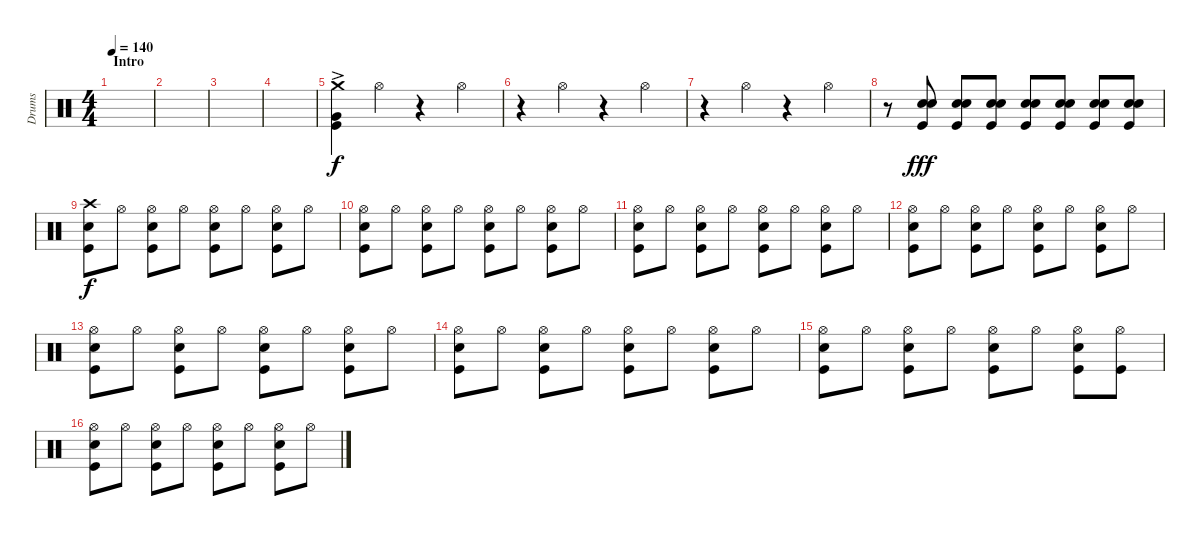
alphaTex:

\track ("Drums" "Drums") {instrument percussion}
\staff {score}
\articulation defaults
\ts (4 4)
\section ("" "Intro")
\tempo 140
\clef neutral
\ks c
|
|
|
|
("Crash medium (hit)"{ac} "Very Low Tom (hit)" "Kick (hit)").4 "Hi-Hat (open)".4{dy f} r.4 "Hi-Hat (open)".4 |
r.4 "Hi-Hat (open)".4 r.4 "Hi-Hat (open)".4 |
r.4 "Hi-Hat (open)".4 r.4 "Hi-Hat (open)".4 |
r.8 ("Snare (hit) 2" "Snare (hit) 2" "Kick (hit)").8{dy fff} ("Snare (hit) 2" "Snare (hit) 2" "Kick (hit)").8 ("Snare (hit) 2" "Snare (hit) 2" "Kick (hit)").8 ("Snare (hit) 2" "Snare (hit) 2" "Kick (hit)").8 ("Snare (hit) 2" "Snare (hit) 2" "Kick (hit)").8 ("Snare (hit) 2" "Snare (hit) 2" "Kick (hit)").8 ("Snare (hit) 2" "Snare (hit) 2" "Kick (hit)").8 |
("Crash high (hit)" "Snare (hit) 2" "Kick (hit)").8{dy f} "Hi-Hat (open)".8 ("Hi-Hat (open)" "Snare (hit) 2" "Kick (hit)").8 "Hi-Hat (open)".8 ("Hi-Hat (open)" "Snare (hit) 2" "Kick (hit)").8 "Hi-Hat (open)".8 ("Hi-Hat (open)" "Snare (hit) 2" "Kick (hit)").8 "Hi-Hat (open)".8 |
("Hi-Hat (open)" "Snare (hit) 2" "Kick (hit)").8 "Hi-Hat (open)".8 ("Hi-Hat (open)" "Snare (hit) 2" "Kick (hit)").8 "Hi-Hat (open)".8 ("Hi-Hat (open)" "Snare (hit) 2" "Kick (hit)").8 "Hi-Hat (open)".8 ("Hi-Hat (open)" "Snare (hit) 2" "Kick (hit)").8 "Hi-Hat (open)".8 |
("Hi-Hat (open)" "Snare (hit) 2" "Kick (hit)").8 "Hi-Hat (open)".8 ("Hi-Hat (open)" "Snare (hit) 2" "Kick (hit)").8 "Hi-Hat (open)".8 ("Hi-Hat (open)" "Snare (hit) 2" "Kick (hit)").8 "Hi-Hat (open)".8 ("Hi-Hat (open)" "Snare (hit) 2" "Kick (hit)").8 "Hi-Hat (open)".8 |
("Hi-Hat (open)" "Snare (hit) 2" "Kick (hit)").8 "Hi-Hat (open)".8 ("Hi-Hat (open)" "Snare (hit) 2" "Kick (hit)").8 "Hi-Hat (open)".8 ("Hi-Hat (open)" "Snare (hit) 2" "Kick (hit)").8 "Hi-Hat (open)".8 ("Hi-Hat (open)" "Snare (hit) 2" "Kick (hit)").8 "Hi-Hat (open)".8 |
("Hi-Hat (open)" "Snare (hit) 2" "Kick (hit)").8 "Hi-Hat (open)".8 ("Hi-Hat (open)" "Snare (hit) 2" "Kick (hit)").8 "Hi-Hat (open)".8 ("Hi-Hat (open)" "Snare (hit) 2" "Kick (hit)").8 "Hi-Hat (open)".8 ("Hi-Hat (open)" "Snare (hit) 2" "Kick (hit)").8 "Hi-Hat (open)".8 |
("Hi-Hat (open)" "Snare (hit) 2" "Kick (hit)").8 "Hi-Hat (open)".8 ("Hi-Hat (open)" "Snare (hit) 2" "Kick (hit)").8 "Hi-Hat (open)".8 ("Hi-Hat (open)" "Snare (hit) 2" "Kick (hit)").8 "Hi-Hat (open)".8 ("Hi-Hat (open)" "Snare (hit) 2" "Kick (hit)").8 "Hi-Hat (open)".8 |
("Hi-Hat (open)" "Snare (hit) 2" "Kick (hit)").8 "Hi-Hat (open)".8 ("Hi-Hat (open)" "Snare (hit) 2" "Kick (hit)").8 "Hi-Hat (open)".8 ("Hi-Hat (open)" "Snare (hit) 2" "Kick (hit)").8 "Hi-Hat (open)".8 ("Hi-Hat (open)" "Snare (hit) 2" "Kick (hit)").8 ("Hi-Hat (open)" "Kick (hit)").8 |
("Hi-Hat (open)" "Snare (hit) 2" "Kick (hit)").8 "Hi-Hat (open)".8 ("Hi-Hat (open)" "Snare (hit) 2" "Kick (hit)").8 "Hi-Hat (open)".8 ("Hi-Hat (open)" "Snare (hit) 2" "Kick (hit)").8 "Hi-Hat (open)".8 ("Hi-Hat (open)" "Snare (hit) 2" "Kick (hit)").8 "Hi-Hat (open)".8
